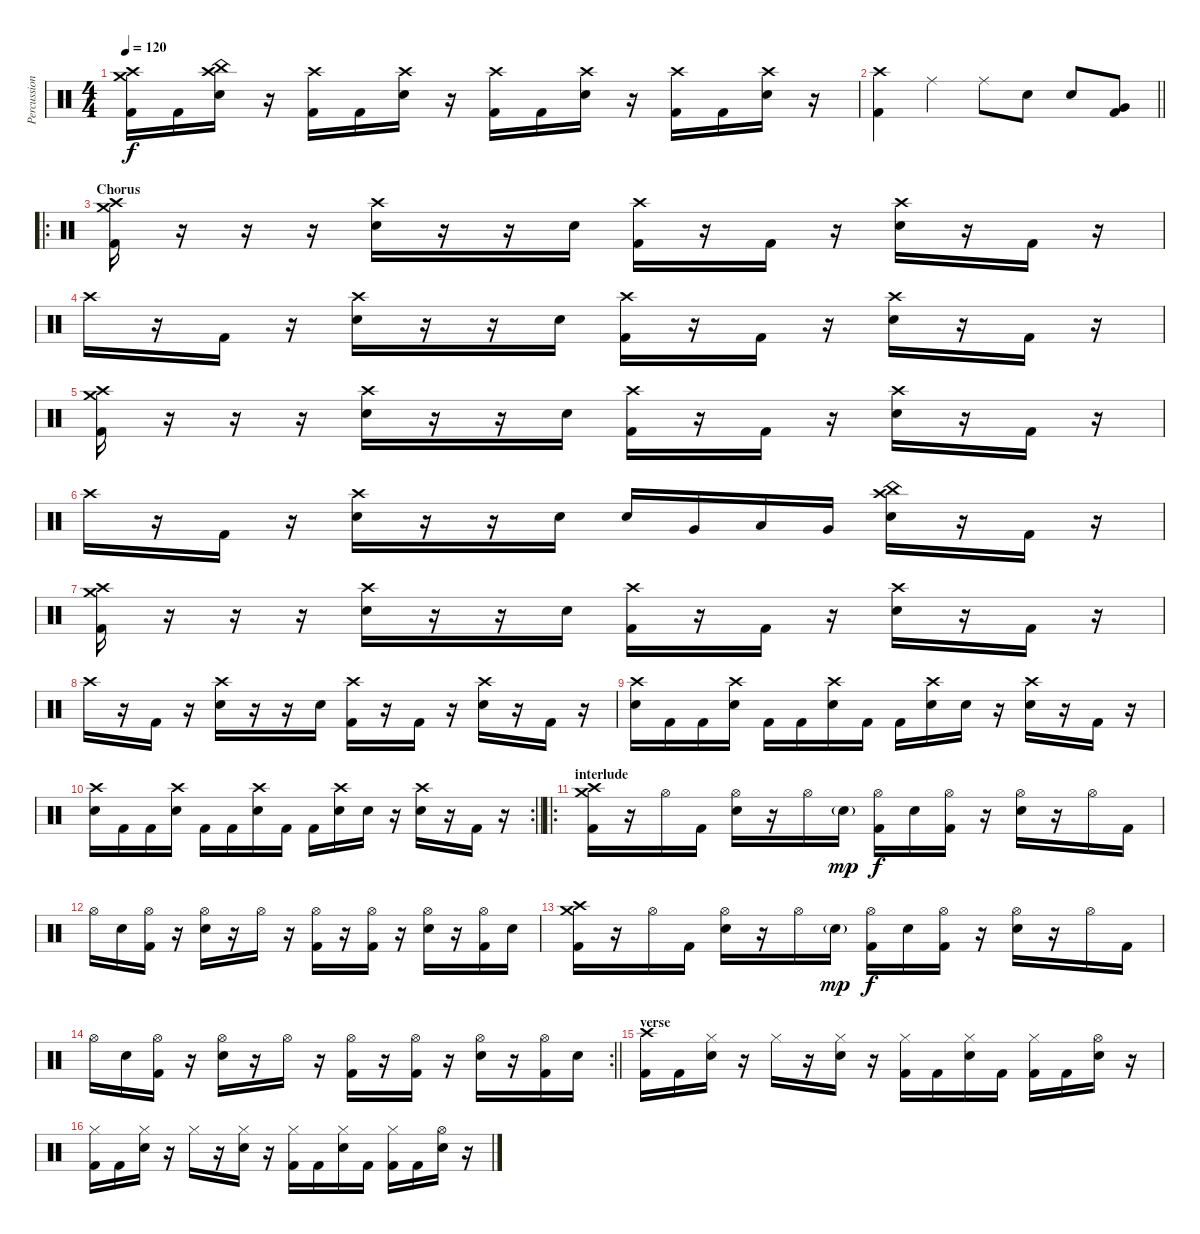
\track ("Percussion" "Percussion") {instrument percussion}
\staff {score}
\articulation defaults
\ts (4 4)
\tempo 120
\clef neutral
\ks c
("Crash medium (hit)" "Crash high (hit)" "Kick (hit) 2").16{dy f} "Kick (hit) 2".16 ("China (hit)" "Crash high (hit)" "Electric Snare (hit)").16 r.16 ("Crash high (hit)" "Kick (hit) 2").16 "Kick (hit) 2".16 ("Crash high (hit)" "Electric Snare (hit)").16 r.16 ("Crash high (hit)" "Kick (hit) 2").16 "Kick (hit) 2".16 ("Crash high (hit)" "Electric Snare (hit)").16 r.16 ("Crash high (hit)" "Kick (hit) 2").16 "Kick (hit) 2".16 ("Crash high (hit)" "Electric Snare (hit)").16 r.16 |
\barLineRight lightlight
("Crash high (hit)" "Kick (hit) 2").4 "Ride (middle)".4 "Ride (middle)".8 "Electric Snare (hit)".8 "Electric Snare (hit)".8 ("Very Low Tom (hit)" "Kick (hit) 2").8 |
\ro
\section ("" "Chorus")
("Crash medium (hit)" "Crash high (hit)" "Kick (hit) 2").16 r.16 r.16 r.16 ("Crash high (hit)" "Electric Snare (hit)").16 r.16 r.16 "Electric Snare (hit)".16 ("Crash high (hit)" "Kick (hit) 2").16 r.16 "Kick (hit) 2".16 r.16 ("Crash high (hit)" "Electric Snare (hit)").16 r.16 "Kick (hit) 2".16 r.16 |
"Crash high (hit)".16 r.16 "Kick (hit) 2".16 r.16 ("Crash high (hit)" "Electric Snare (hit)").16 r.16 r.16 "Electric Snare (hit)".16 ("Crash high (hit)" "Kick (hit) 2").16 r.16 "Kick (hit) 2".16 r.16 ("Crash high (hit)" "Electric Snare (hit)").16 r.16 "Kick (hit) 2".16 r.16 |
("Crash medium (hit)" "Crash high (hit)" "Kick (hit) 2").16 r.16 r.16 r.16 ("Crash high (hit)" "Electric Snare (hit)").16 r.16 r.16 "Electric Snare (hit)".16 ("Crash high (hit)" "Kick (hit) 2").16 r.16 "Kick (hit) 2".16 r.16 ("Crash high (hit)" "Electric Snare (hit)").16 r.16 "Kick (hit) 2".16 r.16 |
"Crash high (hit)".16 r.16 "Kick (hit) 2".16 r.16 ("Crash high (hit)" "Electric Snare (hit)").16 r.16 r.16 "Electric Snare (hit)".16 "Electric Snare (hit)".16 "Very Low Tom (hit)".16 "Low Floor Tom (hit)".16 "Very Low Tom (hit)".16 ("China (hit)" "Crash high (hit)" "Electric Snare (hit)").16 r.16 "Kick (hit) 2".16 r.16 |
("Crash medium (hit)" "Crash high (hit)" "Kick (hit) 2").16 r.16 r.16 r.16 ("Crash high (hit)" "Electric Snare (hit)").16 r.16 r.16 "Electric Snare (hit)".16 ("Crash high (hit)" "Kick (hit) 2").16 r.16 "Kick (hit) 2".16 r.16 ("Crash high (hit)" "Electric Snare (hit)").16 r.16 "Kick (hit) 2".16 r.16 |
"Crash high (hit)".16 r.16 "Kick (hit) 2".16 r.16 ("Crash high (hit)" "Electric Snare (hit)").16 r.16 r.16 "Electric Snare (hit)".16 ("Crash high (hit)" "Kick (hit) 2").16 r.16 "Kick (hit) 2".16 r.16 ("Crash high (hit)" "Electric Snare (hit)").16 r.16 "Kick (hit) 2".16 r.16 |
("Crash high (hit)" "Electric Snare (hit)").16 "Kick (hit) 2".16 "Kick (hit) 2".16 ("Crash high (hit)" "Electric Snare (hit)").16 "Kick (hit) 2".16 "Kick (hit) 2".16 ("Crash high (hit)" "Electric Snare (hit)").16 "Kick (hit) 2".16 "Kick (hit) 2".16 ("Crash high (hit)" "Electric Snare (hit)").16 "Electric Snare (hit)".16 r.16 ("Crash high (hit)" "Electric Snare (hit)").16 r.16 "Kick (hit) 2".16 r.16 |
\rc 2
\barLineRight lightlight
("Crash high (hit)" "Electric Snare (hit)").16 "Kick (hit) 2".16 "Kick (hit) 2".16 ("Crash high (hit)" "Electric Snare (hit)").16 "Kick (hit) 2".16 "Kick (hit) 2".16 ("Crash high (hit)" "Electric Snare (hit)").16 "Kick (hit) 2".16 "Kick (hit) 2".16 ("Crash high (hit)" "Electric Snare (hit)").16 "Electric Snare (hit)".16 r.16 ("Crash high (hit)" "Electric Snare (hit)").16 r.16 "Kick (hit) 2".16 r.16 |
\ro
\section ("" "interlude")
("Crash medium (hit)" "Crash high (hit)" "Kick (hit) 2").16 r.16 "Hi-Hat (open)".16 "Kick (hit) 2".16 ("Hi-Hat (open)" "Electric Snare (hit)").16 r.16 "Hi-Hat (open)".16 "Electric Snare (hit)"{g}.16{dy mp} ("Hi-Hat (open)" "Kick (hit) 2").16{dy f} "Electric Snare (hit)".16 ("Hi-Hat (open)" "Kick (hit) 2").16 r.16 ("Hi-Hat (open)" "Electric Snare (hit)").16 r.16 "Hi-Hat (open)".16 "Kick (hit) 2".16 |
"Hi-Hat (open)".16 "Electric Snare (hit)".16 ("Hi-Hat (open)" "Kick (hit) 2").16 r.16 ("Hi-Hat (open)" "Electric Snare (hit)").16 r.16 "Hi-Hat (open)".16 r.16 ("Hi-Hat (open)" "Kick (hit) 2").16 r.16 ("Hi-Hat (open)" "Kick (hit) 2").16 r.16 ("Hi-Hat (open)" "Electric Snare (hit)").16 r.16 ("Hi-Hat (open)" "Kick (hit) 2").16 "Electric Snare (hit)".16 |
("Crash medium (hit)" "Crash high (hit)" "Kick (hit) 2").16 r.16 "Hi-Hat (open)".16 "Kick (hit) 2".16 ("Hi-Hat (open)" "Electric Snare (hit)").16 r.16 "Hi-Hat (open)".16 "Electric Snare (hit)"{g}.16{dy mp} ("Hi-Hat (open)" "Kick (hit) 2").16{dy f} "Electric Snare (hit)".16 ("Hi-Hat (open)" "Kick (hit) 2").16 r.16 ("Hi-Hat (open)" "Electric Snare (hit)").16 r.16 "Hi-Hat (open)".16 "Kick (hit) 2".16 |
\rc 2
\barLineRight lightlight "Hi-Hat (open)".16 "Electric Snare (hit)".16
("Hi-Hat (open)" "Kick (hit) 2").16 r.16 ("Hi-Hat (open)" "Electric Snare (hit)").16 r.16 "Hi-Hat (open)".16 r.16 ("Hi-Hat (open)" "Kick (hit) 2").16 r.16 ("Hi-Hat (open)" "Kick (hit) 2").16 r.16 ("Hi-Hat (open)" "Electric Snare (hit)").16 r.16 ("Hi-Hat (open)" "Kick (hit) 2").16 "Electric Snare (hit)".16 |
\section ("" "verse")
("Crash high (hit)" "Kick (hit) 2").16 "Kick (hit) 2".16 ("Hi-Hat (closed)" "Electric Snare (hit)").16 r.16 "Hi-Hat (closed)".16 r.16 ("Hi-Hat (closed)" "Electric Snare (hit)").16 r.16 ("Hi-Hat (closed)" "Kick (hit) 2").16 "Kick (hit) 2".16 ("Hi-Hat (closed)" "Electric Snare (hit)").16 "Kick (hit) 2".16 ("Hi-Hat (closed)" "Kick (hit) 2").16 "Kick (hit) 2".16 ("Hi-Hat (open)" "Electric Snare (hit)").16 r.16 |
("Hi-Hat (closed)" "Kick (hit) 2").16 "Kick (hit) 2".16 ("Hi-Hat (closed)" "Electric Snare (hit)").16 r.16 "Hi-Hat (closed)".16 r.16 ("Hi-Hat (closed)" "Electric Snare (hit)").16 r.16 ("Hi-Hat (closed)" "Kick (hit) 2").16 "Kick (hit) 2".16 ("Hi-Hat (closed)" "Electric Snare (hit)").16 "Kick (hit) 2".16 ("Hi-Hat (closed)" "Kick (hit) 2").16 "Kick (hit) 2".16 ("Hi-Hat (open)" "Electric Snare (hit)").16 r.16
